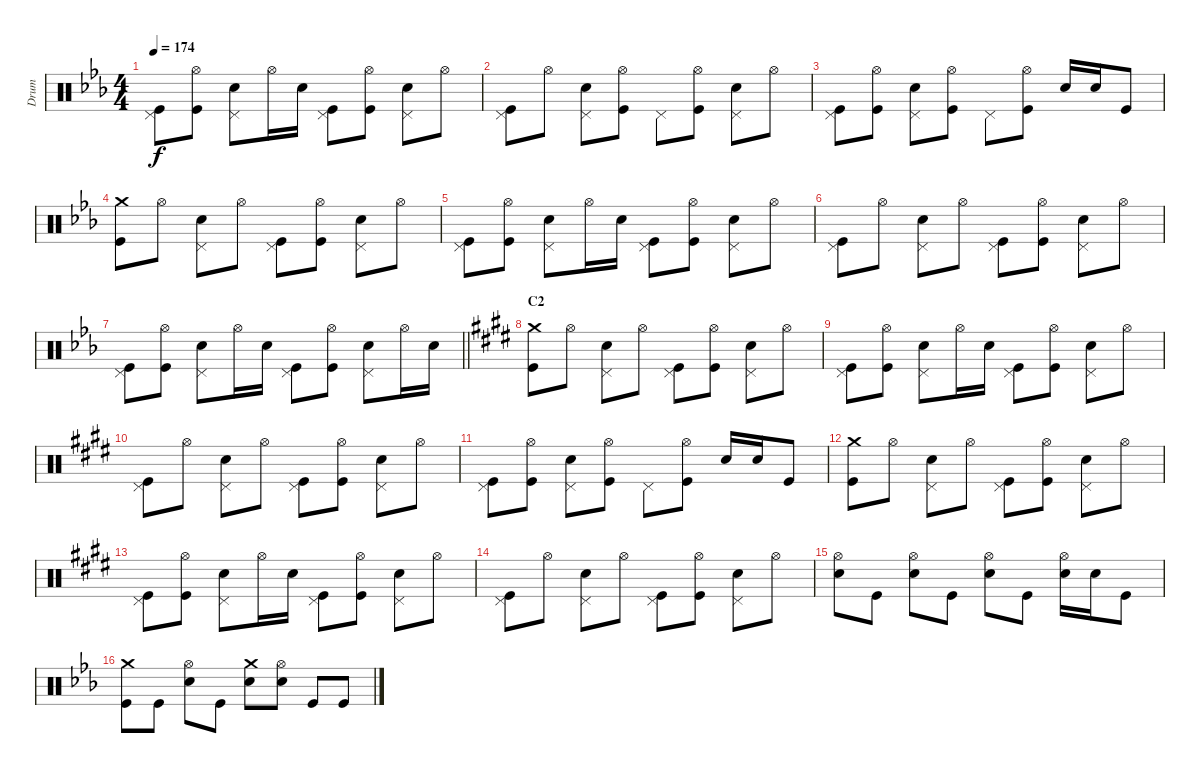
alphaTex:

\track ("Drum" "Drum") {instrument percussion}
\staff {score}
\articulation defaults
\ts (4 4)
\tempo 174
\clef neutral
\ks eb
("Pedal Hi-Hat (hit)" "Kick (hit)").8{dy f} ("Hi-Hat (open)" "Kick (hit)").8 ("Pedal Hi-Hat (hit)" "Snare (hit) 2").8 "Hi-Hat (open)".16 "Snare (hit) 2".16 ("Pedal Hi-Hat (hit)" "Kick (hit)").8 ("Hi-Hat (open)" "Kick (hit)").8 ("Pedal Hi-Hat (hit)" "Snare (hit) 2").8 "Hi-Hat (open)".8 |
("Pedal Hi-Hat (hit)" "Kick (hit)").8 "Hi-Hat (open)".8 ("Pedal Hi-Hat (hit)" "Snare (hit) 2").8 ("Hi-Hat (open)" "Kick (hit)").8 "Pedal Hi-Hat (hit)".8 ("Hi-Hat (open)" "Kick (hit)").8 ("Pedal Hi-Hat (hit)" "Snare (hit) 2").8 "Hi-Hat (open)".8 |
("Pedal Hi-Hat (hit)" "Kick (hit)").8 ("Hi-Hat (open)" "Kick (hit)").8 ("Pedal Hi-Hat (hit)" "Snare (hit) 2").8 ("Hi-Hat (open)" "Kick (hit)").8 "Pedal Hi-Hat (hit)".8 ("Hi-Hat (open)" "Kick (hit)").8 "Snare (hit) 2".16 "Snare (hit) 2".16 "Kick (hit)".8 |
("Crash medium (hit)" "Kick (hit)").8 "Hi-Hat (open)".8 ("Pedal Hi-Hat (hit)" "Snare (hit) 2").8 "Hi-Hat (open)".8 ("Pedal Hi-Hat (hit)" "Kick (hit)").8 ("Hi-Hat (open)" "Kick (hit)").8 ("Pedal Hi-Hat (hit)" "Snare (hit) 2").8 "Hi-Hat (open)".8 |
("Pedal Hi-Hat (hit)" "Kick (hit)").8 ("Hi-Hat (open)" "Kick (hit)").8 ("Pedal Hi-Hat (hit)" "Snare (hit) 2").8 "Hi-Hat (open)".16 "Snare (hit) 2".16 ("Pedal Hi-Hat (hit)" "Kick (hit)").8 ("Hi-Hat (open)" "Kick (hit)").8 ("Pedal Hi-Hat (hit)" "Snare (hit) 2").8 "Hi-Hat (open)".8 |
("Pedal Hi-Hat (hit)" "Kick (hit)").8 "Hi-Hat (open)".8 ("Pedal Hi-Hat (hit)" "Snare (hit) 2").8 "Hi-Hat (open)".8 ("Pedal Hi-Hat (hit)" "Kick (hit)").8 ("Hi-Hat (open)" "Kick (hit)").8 ("Pedal Hi-Hat (hit)" "Snare (hit) 2").8 "Hi-Hat (open)".8 |
\barLineRight lightlight
("Pedal Hi-Hat (hit)" "Kick (hit)").8 ("Hi-Hat (open)" "Kick (hit)").8 ("Pedal Hi-Hat (hit)" "Snare (hit) 2").8 "Hi-Hat (open)".16 "Snare (hit) 2".16 ("Pedal Hi-Hat (hit)" "Kick (hit)").8 ("Hi-Hat (open)" "Kick (hit)").8 ("Pedal Hi-Hat (hit)" "Snare (hit) 2").8 "Hi-Hat (open)".16 "Snare (hit) 2".16 |
\section ("" "C2")
\ks e
("Crash medium (hit)" "Kick (hit)").8 "Hi-Hat (open)".8 ("Pedal Hi-Hat (hit)" "Snare (hit) 2").8 "Hi-Hat (open)".8 ("Pedal Hi-Hat (hit)" "Kick (hit)").8 ("Hi-Hat (open)" "Kick (hit)").8 ("Pedal Hi-Hat (hit)" "Snare (hit) 2").8 "Hi-Hat (open)".8 |
("Pedal Hi-Hat (hit)" "Kick (hit)").8 ("Hi-Hat (open)" "Kick (hit)").8 ("Pedal Hi-Hat (hit)" "Snare (hit) 2").8 "Hi-Hat (open)".16 "Snare (hit) 2".16 ("Pedal Hi-Hat (hit)" "Kick (hit)").8 ("Hi-Hat (open)" "Kick (hit)").8 ("Pedal Hi-Hat (hit)" "Snare (hit) 2").8 "Hi-Hat (open)".8 |
("Pedal Hi-Hat (hit)" "Kick (hit)").8 "Hi-Hat (open)".8 ("Pedal Hi-Hat (hit)" "Snare (hit) 2").8 "Hi-Hat (open)".8 ("Pedal Hi-Hat (hit)" "Kick (hit)").8 ("Hi-Hat (open)" "Kick (hit)").8 ("Pedal Hi-Hat (hit)" "Snare (hit) 2").8 "Hi-Hat (open)".8 |
("Pedal Hi-Hat (hit)" "Kick (hit)").8 ("Hi-Hat (open)" "Kick (hit)").8 ("Pedal Hi-Hat (hit)" "Snare (hit) 2").8 ("Hi-Hat (open)" "Kick (hit)").8 "Pedal Hi-Hat (hit)".8 ("Hi-Hat (open)" "Kick (hit)").8 "Snare (hit) 2".16 "Snare (hit) 2".16 "Kick (hit)".8 |
("Crash medium (hit)" "Kick (hit)").8 "Hi-Hat (open)".8 ("Pedal Hi-Hat (hit)" "Snare (hit) 2").8 "Hi-Hat (open)".8 ("Pedal Hi-Hat (hit)" "Kick (hit)").8 ("Hi-Hat (open)" "Kick (hit)").8 ("Pedal Hi-Hat (hit)" "Snare (hit) 2").8 "Hi-Hat (open)".8 |
("Pedal Hi-Hat (hit)" "Kick (hit)").8 ("Hi-Hat (open)" "Kick (hit)").8 ("Pedal Hi-Hat (hit)" "Snare (hit) 2").8 "Hi-Hat (open)".16 "Snare (hit) 2".16 ("Pedal Hi-Hat (hit)" "Kick (hit)").8 ("Hi-Hat (open)" "Kick (hit)").8 ("Pedal Hi-Hat (hit)" "Snare (hit) 2").8 "Hi-Hat (open)".8 |
("Pedal Hi-Hat (hit)" "Kick (hit)").8 "Hi-Hat (open)".8 ("Pedal Hi-Hat (hit)" "Snare (hit) 2").8 "Hi-Hat (open)".8 ("Pedal Hi-Hat (hit)" "Kick (hit)").8 ("Hi-Hat (open)" "Kick (hit)").8 ("Pedal Hi-Hat (hit)" "Snare (hit) 2").8 "Hi-Hat (open)".8 |
("Hi-Hat (open)" "Snare (hit) 2").8 "Kick (hit)".8 ("Hi-Hat (open)" "Snare (hit) 2").8 "Kick (hit)".8 ("Hi-Hat (open)" "Snare (hit) 2").8 "Kick (hit)".8 ("Hi-Hat (open)" "Snare (hit) 2").16 "Snare (hit) 2".16 "Kick (hit)".8 |
\ks eb
("Crash medium (hit)" "Kick (hit)").8 "Kick (hit)".8 ("Hi-Hat (open)" "Snare (hit) 2").8 "Kick (hit)".8 ("Crash medium (hit)" "Snare (hit) 2").8 ("Hi-Hat (open)" "Snare (hit) 2").8 "Kick (hit)".8 "Kick (hit)".8
